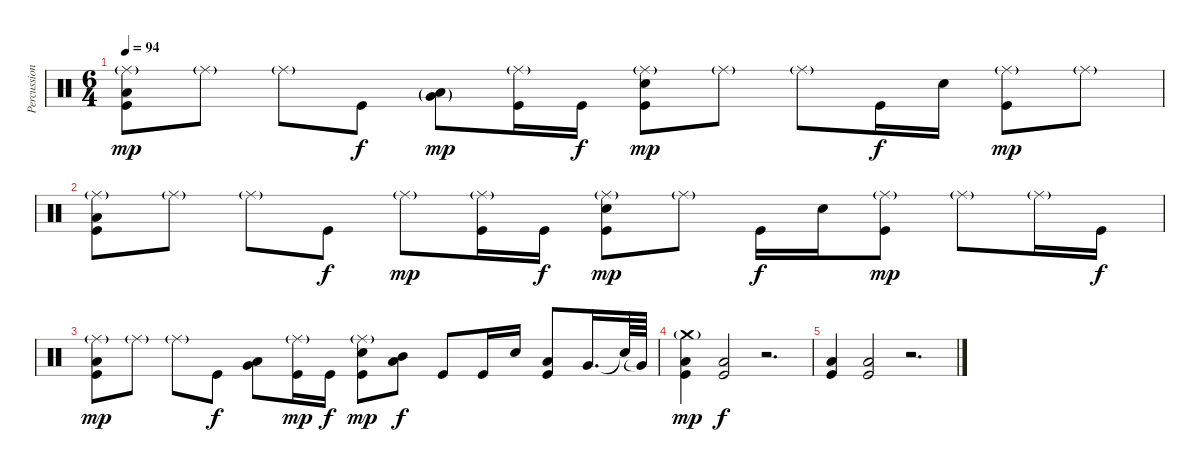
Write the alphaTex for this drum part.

\track ("Percussion" "Percussion") {instrument percussion}
\staff {score}
\articulation defaults
\ts (6 4)
\tempo 94
\clef neutral
\ks c
("Ride (middle)"{g} "Low Floor Tom (hit)" "Kick (hit)").8{dy mp} "Ride (middle)"{g}.8 "Ride (middle)"{g}.8 "Kick (hit)".8{dy f} ("Low Floor Tom (hit)"{g} "Very Low Tom (hit)"{g}).8{dy mp} ("Ride (middle)"{g} "Kick (hit)").16 "Kick (hit)".16{dy f} ("Ride (middle)"{g} "Electric Snare (hit)" "Kick (hit)").8{dy mp} "Ride (middle)"{g}.8 "Ride (middle)"{g}.8 "Kick (hit)".16{dy f} "Electric Snare (hit)".16 ("Ride (middle)"{g} "Kick (hit)").8{dy mp} "Ride (middle)"{g}.8 |
("Ride (middle)"{g} "Low Floor Tom (hit)" "Kick (hit)").8 "Ride (middle)"{g}.8 "Ride (middle)"{g}.8 "Kick (hit)".8{dy f} "Ride (middle)"{g}.8{dy mp} ("Ride (middle)"{g} "Kick (hit)").16 "Kick (hit)".16{dy f} ("Ride (middle)"{g} "Electric Snare (hit)" "Kick (hit)").8{dy mp} "Ride (middle)"{g}.8 "Kick (hit)".16{dy f} "Electric Snare (hit)".16 ("Ride (middle)"{g} "Kick (hit)").8{dy mp} "Ride (middle)"{g}.8 "Ride (middle)"{g}.16 "Kick (hit)".16{dy f} |
("Ride (middle)"{g} "Low Floor Tom (hit)" "Kick (hit)").8{dy mp} "Ride (middle)"{g}.8 "Ride (middle)"{g}.8 "Kick (hit)".8{dy f} ("Low Floor Tom (hit)" "Very Low Tom (hit)").8 ("Ride (middle)"{g} "Kick (hit)").16{dy mp} "Kick (hit)".16{dy f} ("Ride (middle)"{g} "Electric Snare (hit)" "Kick (hit)").8{dy mp} ("Mid Tom (hit)" "Low Tom (hit)").8{dy f} "Kick (hit)".8 "Kick (hit)".16 "Electric Snare (hit)".16 ("Low Tom (hit)" "Kick (hit)").8 "Very Low Tom (hit)".16{d} "Snare (hit)"{t}.64 "Very Low Tom (hit)"{t}.64 |
("Crash medium (hit)"{g} "Low Floor Tom (hit)" "Kick (hit)").4{dy mp} ("Low Floor Tom (hit)" "Kick (hit)").2{dy f} r.2{d} |
("Low Floor Tom (hit)" "Kick (hit)").4 ("Low Floor Tom (hit)" "Kick (hit)").2 r.2{d}
